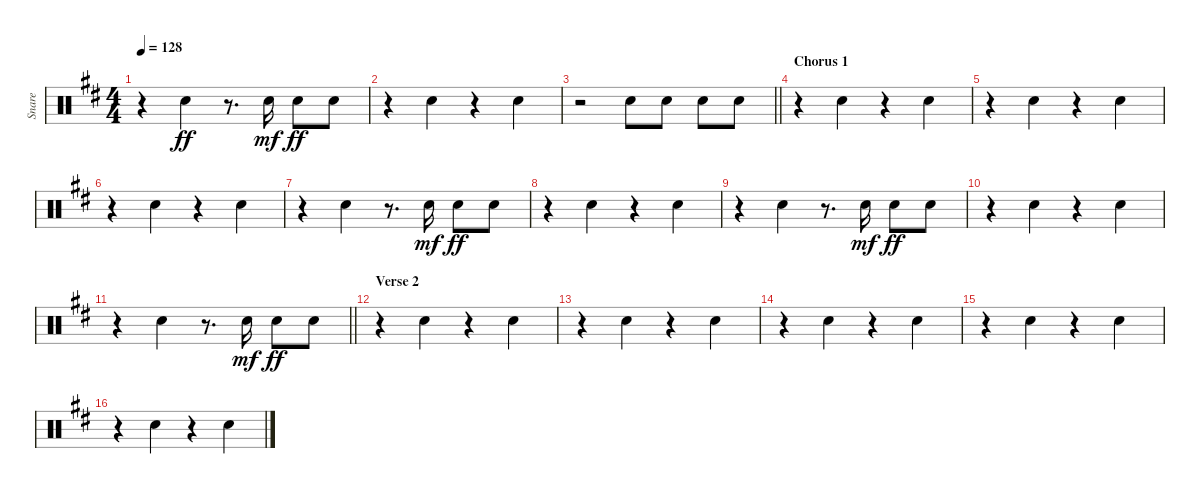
\track ("Snare" "Snare") {instrument percussion}
\staff {score}
\articulation defaults
\ts (4 4)
\tempo 128
\clef neutral
\ks bminor
r.4{dy ff beam merge} "Electric Snare (hit)".4 r.8{d} "Electric Snare (hit)".16{dy mf beam split} "Electric Snare (hit)".8{dy ff} "Electric Snare (hit)".8 |
r.4 "Electric Snare (hit)".4 r.4 "Electric Snare (hit)".4 |
\barLineRight lightlight
r.2 "Electric Snare (hit)".8 "Electric Snare (hit)".8 "Electric Snare (hit)".8 "Electric Snare (hit)".8 |
\section ("" "Chorus 1")
r.4{beam merge} "Electric Snare (hit)".4 r.4{beam merge} "Electric Snare (hit)".4 |
r.4{beam merge} "Electric Snare (hit)".4 r.4{beam merge} "Electric Snare (hit)".4 |
r.4{beam merge} "Electric Snare (hit)".4 r.4{beam merge} "Electric Snare (hit)".4 |
r.4{beam merge} "Electric Snare (hit)".4 r.8{d} "Electric Snare (hit)".16{dy mf beam split} "Electric Snare (hit)".8{dy ff} "Electric Snare (hit)".8 |
r.4{beam merge} "Electric Snare (hit)".4 r.4{beam merge} "Electric Snare (hit)".4 |
r.4{beam merge} "Electric Snare (hit)".4 r.8{d} "Electric Snare (hit)".16{dy mf beam split} "Electric Snare (hit)".8{dy ff} "Electric Snare (hit)".8 |
r.4{beam merge} "Electric Snare (hit)".4 r.4{beam merge} "Electric Snare (hit)".4 |
\barLineRight lightlight
r.4{beam merge} "Electric Snare (hit)".4 r.8{d} "Electric Snare (hit)".16{dy mf beam split} "Electric Snare (hit)".8{dy ff} "Electric Snare (hit)".8 |
\section ("" "Verse 2")
r.4{beam merge} "Electric Snare (hit)".4 r.4{beam merge} "Electric Snare (hit)".4 |
r.4{beam merge} "Electric Snare (hit)".4 r.4{beam merge} "Electric Snare (hit)".4 |
r.4{beam merge} "Electric Snare (hit)".4 r.4{beam merge} "Electric Snare (hit)".4 |
r.4{beam merge} "Electric Snare (hit)".4 r.4{beam merge} "Electric Snare (hit)".4 |
r.4{beam merge} "Electric Snare (hit)".4 r.4{beam merge} "Electric Snare (hit)".4
